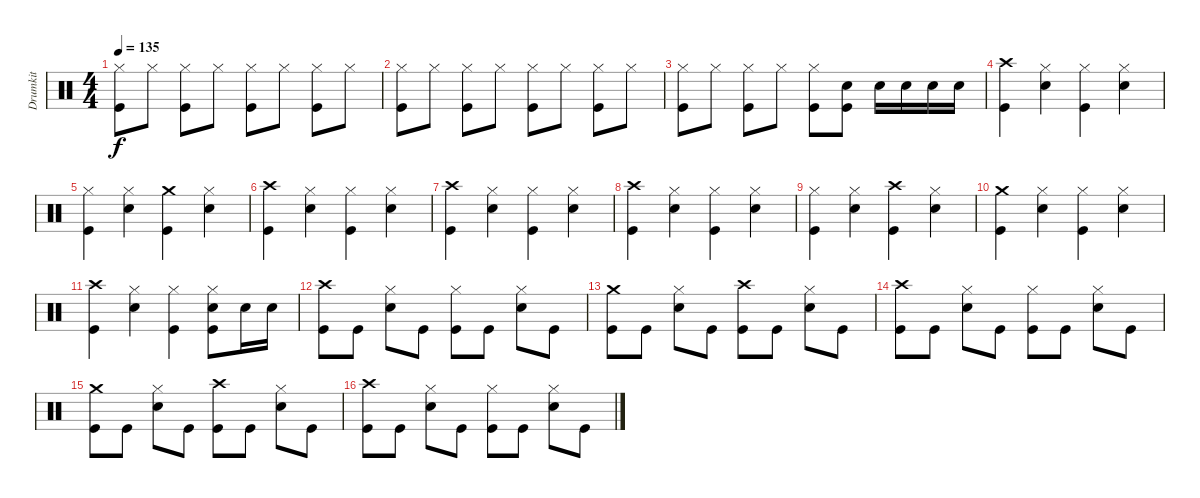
\track ("Drumkit" "Drumkit") {instrument percussion}
\staff {score}
\articulation defaults
\ts (4 4)
\tempo 135
\clef neutral
\ks c
("Hi-Hat (closed)" "Kick (hit)").8{dy f} "Hi-Hat (closed)".8 ("Hi-Hat (closed)" "Kick (hit)").8 "Hi-Hat (closed)".8 ("Hi-Hat (closed)" "Kick (hit)").8 "Hi-Hat (closed)".8 ("Hi-Hat (closed)" "Kick (hit)").8 "Hi-Hat (closed)".8 |
("Hi-Hat (closed)" "Kick (hit)").8 "Hi-Hat (closed)".8 ("Hi-Hat (closed)" "Kick (hit)").8 "Hi-Hat (closed)".8 ("Hi-Hat (closed)" "Kick (hit)").8 "Hi-Hat (closed)".8 ("Hi-Hat (closed)" "Kick (hit)").8 "Hi-Hat (closed)".8 |
("Hi-Hat (closed)" "Kick (hit)").8 "Hi-Hat (closed)".8 ("Hi-Hat (closed)" "Kick (hit)").8 "Hi-Hat (closed)".8 ("Hi-Hat (closed)" "Kick (hit)").8 ("Snare (hit) 2" "Kick (hit)").8 "Snare (hit) 2".16 "Snare (hit) 2".16 "Snare (hit) 2".16 "Snare (hit) 2".16 |
("Crash high (hit)" "Kick (hit)").4 ("Hi-Hat (closed)" "Snare (hit) 2").4 ("Hi-Hat (closed)" "Kick (hit)").4 ("Hi-Hat (closed)" "Snare (hit) 2").4 |
("Hi-Hat (closed)" "Kick (hit)").4 ("Hi-Hat (closed)" "Snare (hit) 2").4 ("Crash medium (hit)" "Kick (hit)").4 ("Hi-Hat (closed)" "Snare (hit) 2").4 |
("Crash high (hit)" "Kick (hit)").4 ("Hi-Hat (closed)" "Snare (hit) 2").4 ("Hi-Hat (closed)" "Kick (hit)").4 ("Hi-Hat (closed)" "Snare (hit) 2").4 |
("Crash high (hit)" "Kick (hit)").4 ("Hi-Hat (closed)" "Snare (hit) 2").4 ("Hi-Hat (closed)" "Kick (hit)").4 ("Hi-Hat (closed)" "Snare (hit) 2").4 |
("Crash high (hit)" "Kick (hit)").4 ("Hi-Hat (closed)" "Snare (hit) 2").4 ("Hi-Hat (closed)" "Kick (hit)").4 ("Hi-Hat (closed)" "Snare (hit) 2").4 |
("Hi-Hat (closed)" "Kick (hit)").4 ("Hi-Hat (closed)" "Snare (hit) 2").4 ("Crash high (hit)" "Kick (hit)").4 ("Hi-Hat (closed)" "Snare (hit) 2").4 |
("Crash medium (hit)" "Kick (hit)").4 ("Hi-Hat (closed)" "Snare (hit) 2").4 ("Hi-Hat (closed)" "Kick (hit)").4 ("Hi-Hat (closed)" "Snare (hit) 2").4 |
("Crash high (hit)" "Kick (hit)").4 ("Hi-Hat (closed)" "Snare (hit) 2").4 ("Hi-Hat (closed)" "Kick (hit)").4 ("Hi-Hat (closed)" "Snare (hit) 2" "Kick (hit)").8 "Snare (hit) 2".16 "Snare (hit) 2".16 |
("Crash high (hit)" "Kick (hit)").8 "Kick (hit)".8 ("Hi-Hat (closed)" "Snare (hit) 2").8 "Kick (hit)".8 ("Hi-Hat (closed)" "Kick (hit)").8 "Kick (hit)".8 ("Hi-Hat (closed)" "Snare (hit) 2").8 "Kick (hit)".8 |
("Crash medium (hit)" "Kick (hit)").8 "Kick (hit)".8 ("Hi-Hat (closed)" "Snare (hit) 2").8 "Kick (hit)".8 ("Crash high (hit)" "Kick (hit)").8 "Kick (hit)".8 ("Hi-Hat (closed)" "Snare (hit) 2").8 "Kick (hit)".8 |
("Crash high (hit)" "Kick (hit)").8 "Kick (hit)".8 ("Hi-Hat (closed)" "Snare (hit) 2").8 "Kick (hit)".8 ("Hi-Hat (closed)" "Kick (hit)").8 "Kick (hit)".8 ("Hi-Hat (closed)" "Snare (hit) 2").8 "Kick (hit)".8 |
("Crash medium (hit)" "Kick (hit)").8 "Kick (hit)".8 ("Hi-Hat (closed)" "Snare (hit) 2").8 "Kick (hit)".8 ("Crash high (hit)" "Kick (hit)").8 "Kick (hit)".8 ("Hi-Hat (closed)" "Snare (hit) 2").8 "Kick (hit)".8 |
("Crash high (hit)" "Kick (hit)").8 "Kick (hit)".8 ("Hi-Hat (closed)" "Snare (hit) 2").8 "Kick (hit)".8 ("Hi-Hat (closed)" "Kick (hit)").8 "Kick (hit)".8 ("Hi-Hat (closed)" "Snare (hit) 2").8 "Kick (hit)".8
